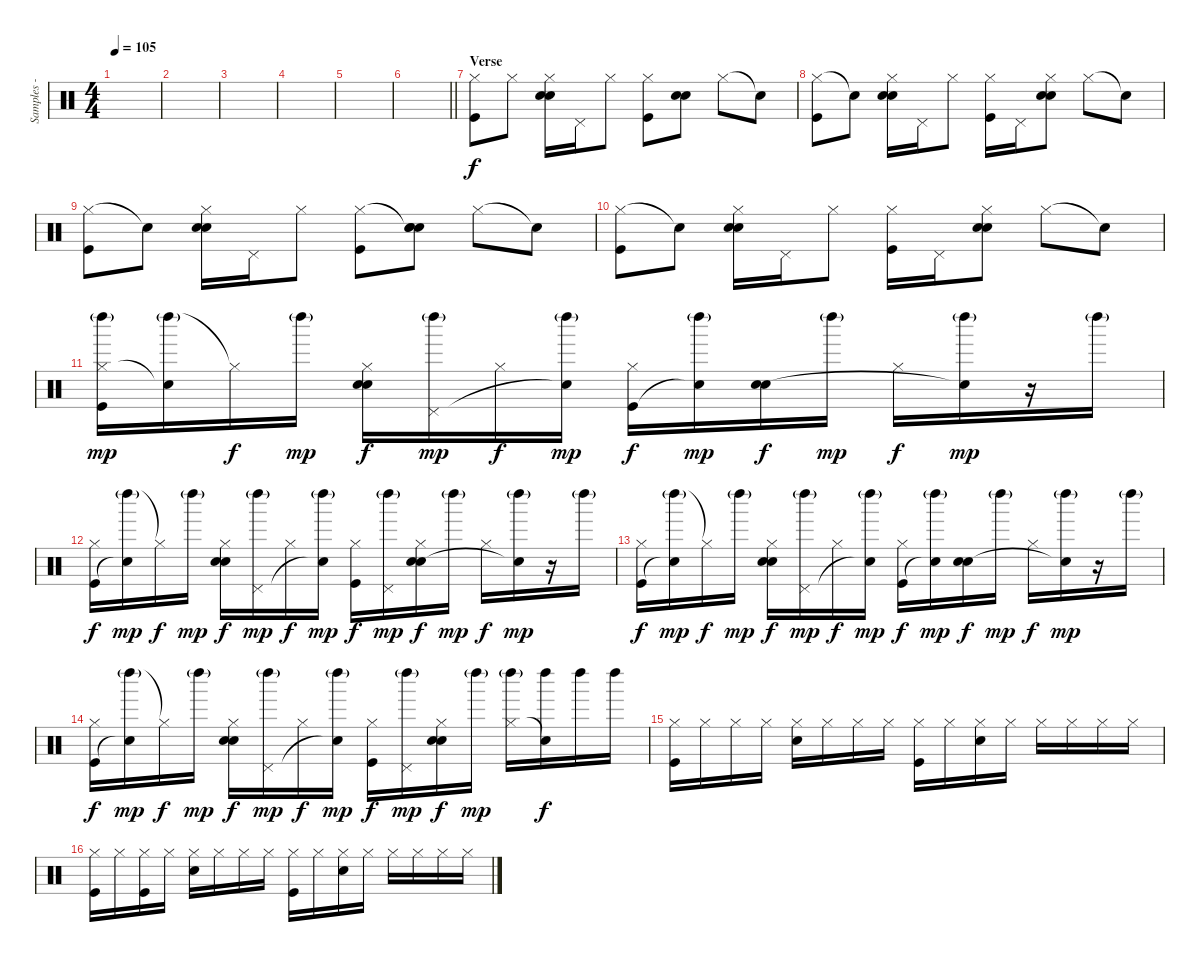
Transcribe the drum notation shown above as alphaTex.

\track ("Samples - Joe Hahn" "Samples - ") {instrument percussion}
\staff {score}
\articulation defaults
\ts (4 4)
\tempo 105
\clef neutral
\ks c
|
|
|
|
|
\barLineRight lightlight
|
\section ("" "Verse")
("Hi-Hat (closed)" "Kick (hit)").8 "Hi-Hat (closed)".8 ("Hi-Hat (closed)" "Electric Snare (hit)" "Hand Clap (hit)").16 "Pedal Hi-Hat (hit)".16 "Hi-Hat (closed)".8 ("Hi-Hat (closed)" "Kick (hit)").8 ("Electric Snare (hit)" "Hand Clap (hit)").8 "Hi-Hat (closed)".8 "Snare (hit)"{t}.8 |
("Hi-Hat (closed)" "Kick (hit)").8 "Snare (hit)"{t}.8 ("Hi-Hat (closed)" "Electric Snare (hit)" "Hand Clap (hit)").16 "Pedal Hi-Hat (hit)".16 "Hi-Hat (closed)".8 ("Hi-Hat (closed)" "Kick (hit)").16 "Pedal Hi-Hat (hit)".16 ("Hi-Hat (closed)" "Electric Snare (hit)" "Hand Clap (hit)").8 "Hi-Hat (closed)".8 "Snare (hit)"{t}.8 |
("Hi-Hat (closed)" "Kick (hit)").8 "Snare (hit)"{t}.8 ("Hi-Hat (closed)" "Electric Snare (hit)" "Hand Clap (hit)").16 "Pedal Hi-Hat (hit)".16 "Hi-Hat (closed)".8 ("Hi-Hat (closed)" "Kick (hit)").8 ("Snare (hit)"{t} "Electric Snare (hit)" "Hand Clap (hit)").8 "Hi-Hat (closed)".8 "Snare (hit)"{t}.8 |
("Hi-Hat (closed)" "Kick (hit)").8 "Snare (hit)"{t}.8 ("Hi-Hat (closed)" "Electric Snare (hit)" "Hand Clap (hit)").16 "Pedal Hi-Hat (hit)".16 "Hi-Hat (closed)".8 ("Hi-Hat (closed)" "Kick (hit)").16 "Pedal Hi-Hat (hit)".16 ("Hi-Hat (closed)" "Electric Snare (hit)" "Hand Clap (hit)").8 "Hi-Hat (closed)".8 "Snare (hit)"{t}.8 |
("Left Maraca (hit)"{g} "Hi-Hat (closed)" "Kick (hit)").16{dy mp} ("Left Maraca (hit)"{g} "Snare (hit)"{t}).16 "Hi-Hat (closed)"{t}.16{dy f} "Left Maraca (hit)"{g}.16{dy mp} ("Hi-Hat (closed)" "Electric Snare (hit)" "Hand Clap (hit)").16{dy f} ("Left Maraca (hit)"{g} "Pedal Hi-Hat (hit)").16{dy mp} "Hi-Hat (closed)".16{dy f} ("Left Maraca (hit)"{g} "Snare (hit)"{t}).16{dy mp} ("Hi-Hat (closed)" "Kick (hit)").16{dy f} ("Left Maraca (hit)"{g} "Snare (hit)"{t}).16{dy mp} ("Electric Snare (hit)" "Hand Clap (hit)").16{dy f} "Left Maraca (hit)"{g}.16{dy mp} "Hi-Hat (closed)".16{dy f} ("Left Maraca (hit)"{g} "Snare (hit)"{t}).16{dy mp} r.16 "Left Maraca (hit)"{g}.16 |
("Hi-Hat (closed)" "Kick (hit)").16{dy f} ("Left Maraca (hit)"{g} "Snare (hit)"{t}).16{dy mp} "Hi-Hat (closed)"{t}.16{dy f} "Left Maraca (hit)"{g}.16{dy mp} ("Hi-Hat (closed)" "Electric Snare (hit)" "Hand Clap (hit)").16{dy f} ("Left Maraca (hit)"{g} "Pedal Hi-Hat (hit)").16{dy mp} "Hi-Hat (closed)".16{dy f} ("Left Maraca (hit)"{g} "Snare (hit)"{t}).16{dy mp} ("Hi-Hat (closed)" "Kick (hit)").16{dy f} ("Left Maraca (hit)"{g} "Pedal Hi-Hat (hit)").16{dy mp} ("Hi-Hat (closed)" "Electric Snare (hit)" "Hand Clap (hit)").16{dy f} "Left Maraca (hit)"{g}.16{dy mp} "Hi-Hat (closed)".16{dy f} ("Left Maraca (hit)"{g} "Snare (hit)"{t}).16{dy mp} r.16 "Left Maraca (hit)"{g}.16 |
("Hi-Hat (closed)" "Kick (hit)").16{dy f} ("Left Maraca (hit)"{g} "Snare (hit)"{t}).16{dy mp} "Hi-Hat (closed)"{t}.16{dy f} "Left Maraca (hit)"{g}.16{dy mp} ("Hi-Hat (closed)" "Electric Snare (hit)" "Hand Clap (hit)").16{dy f} ("Left Maraca (hit)"{g} "Pedal Hi-Hat (hit)").16{dy mp} "Hi-Hat (closed)".16{dy f} ("Left Maraca (hit)"{g} "Snare (hit)"{t}).16{dy mp} ("Hi-Hat (closed)" "Kick (hit)").16{dy f} ("Left Maraca (hit)"{g} "Snare (hit)"{t}).16{dy mp} ("Electric Snare (hit)" "Hand Clap (hit)").16{dy f} "Left Maraca (hit)"{g}.16{dy mp} "Hi-Hat (closed)".16{dy f} ("Left Maraca (hit)"{g} "Snare (hit)"{t}).16{dy mp} r.16 "Left Maraca (hit)"{g}.16 |
("Hi-Hat (closed)" "Kick (hit)").16{dy f} ("Left Maraca (hit)"{g} "Snare (hit)"{t}).16{dy mp} "Hi-Hat (closed)"{t}.16{dy f} "Left Maraca (hit)"{g}.16{dy mp} ("Hi-Hat (closed)" "Electric Snare (hit)" "Hand Clap (hit)").16{dy f} ("Left Maraca (hit)"{g} "Pedal Hi-Hat (hit)").16{dy mp} "Hi-Hat (closed)".16{dy f} ("Left Maraca (hit)"{g} "Snare (hit)"{t}).16{dy mp} ("Hi-Hat (closed)" "Kick (hit)").16{dy f} ("Left Maraca (hit)"{g} "Pedal Hi-Hat (hit)").16{dy mp} ("Hi-Hat (closed)" "Electric Snare (hit)" "Hand Clap (hit)").16{dy f} "Left Maraca (hit)"{g}.16{dy mp} ("Left Maraca (hit)"{g} "Hi-Hat (closed)").16 ("Left Maraca (hit)" "Snare (hit)"{t}).16{dy f} "Left Maraca (hit)".16 "Left Maraca (hit)".16 |
("Hi-Hat (closed)" "Kick (hit)").16 "Hi-Hat (closed)".16 "Hi-Hat (closed)".16 "Hi-Hat (closed)".16 ("Hi-Hat (closed)" "Electric Snare (hit)").16 "Hi-Hat (closed)".16 "Hi-Hat (closed)".16 "Hi-Hat (closed)".16 ("Hi-Hat (closed)" "Kick (hit)").16 "Hi-Hat (closed)".16 ("Hi-Hat (closed)" "Electric Snare (hit)").16 "Hi-Hat (closed)".16 "Hi-Hat (closed)".16 "Hi-Hat (closed)".16 "Hi-Hat (closed)".16 "Hi-Hat (closed)".16 |
("Hi-Hat (closed)" "Kick (hit)").16 "Hi-Hat (closed)".16 ("Hi-Hat (closed)" "Kick (hit)").16 "Hi-Hat (closed)".16 ("Hi-Hat (closed)" "Electric Snare (hit)").16 "Hi-Hat (closed)".16 "Hi-Hat (closed)".16 "Hi-Hat (closed)".16 ("Hi-Hat (closed)" "Kick (hit)").16 "Hi-Hat (closed)".16 ("Hi-Hat (closed)" "Electric Snare (hit)").16 "Hi-Hat (closed)".16 "Hi-Hat (closed)".16 "Hi-Hat (closed)".16 "Hi-Hat (closed)".16 "Hi-Hat (closed)".16
